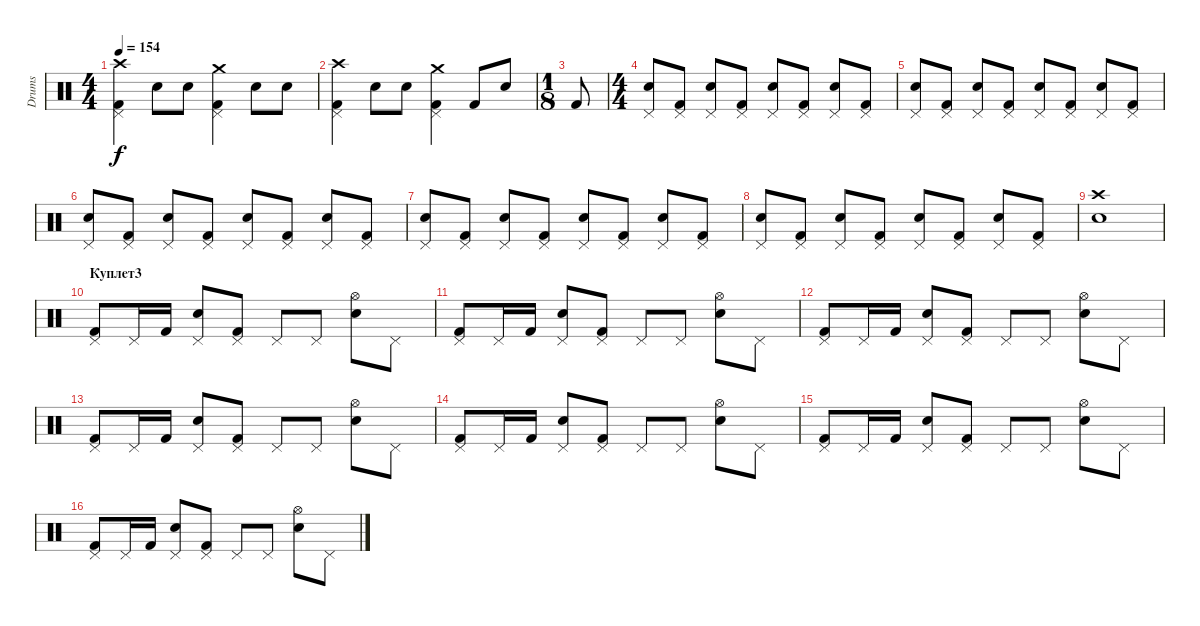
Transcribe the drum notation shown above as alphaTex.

\track ("Drums" "Drums") {instrument percussion}
\staff {score}
\articulation defaults
\ts (4 4)
\tempo 154
\clef neutral
\ks c
("Crash high (hit)" "Kick (hit) 2" "Pedal Hi-Hat (hit)").4{dy f} "Electric Snare (hit)".8 "Electric Snare (hit)".8 ("Crash medium (hit)" "Kick (hit) 2" "Pedal Hi-Hat (hit)").4 "Electric Snare (hit)".8 "Electric Snare (hit)".8 |
("Crash high (hit)" "Kick (hit) 2" "Pedal Hi-Hat (hit)").4 "Electric Snare (hit)".8 "Electric Snare (hit)".8 ("Crash medium (hit)" "Kick (hit) 2" "Pedal Hi-Hat (hit)").4 "Kick (hit) 2".8 "Electric Snare (hit)".8 |
\ts (1 8)
"Kick (hit) 2".8 |
\ts (4 4)
("Electric Snare (hit)" "Pedal Hi-Hat (hit)").8 ("Kick (hit) 2" "Pedal Hi-Hat (hit)").8 ("Electric Snare (hit)" "Pedal Hi-Hat (hit)").8 ("Kick (hit) 2" "Pedal Hi-Hat (hit)").8 ("Electric Snare (hit)" "Pedal Hi-Hat (hit)").8 ("Kick (hit) 2" "Pedal Hi-Hat (hit)").8 ("Electric Snare (hit)" "Pedal Hi-Hat (hit)").8 ("Kick (hit) 2" "Pedal Hi-Hat (hit)").8 |
("Electric Snare (hit)" "Pedal Hi-Hat (hit)").8 ("Kick (hit) 2" "Pedal Hi-Hat (hit)").8 ("Electric Snare (hit)" "Pedal Hi-Hat (hit)").8 ("Kick (hit) 2" "Pedal Hi-Hat (hit)").8 ("Electric Snare (hit)" "Pedal Hi-Hat (hit)").8 ("Kick (hit) 2" "Pedal Hi-Hat (hit)").8 ("Electric Snare (hit)" "Pedal Hi-Hat (hit)").8 ("Kick (hit) 2" "Pedal Hi-Hat (hit)").8 |
("Electric Snare (hit)" "Pedal Hi-Hat (hit)").8 ("Kick (hit) 2" "Pedal Hi-Hat (hit)").8 ("Electric Snare (hit)" "Pedal Hi-Hat (hit)").8 ("Kick (hit) 2" "Pedal Hi-Hat (hit)").8 ("Electric Snare (hit)" "Pedal Hi-Hat (hit)").8 ("Kick (hit) 2" "Pedal Hi-Hat (hit)").8 ("Electric Snare (hit)" "Pedal Hi-Hat (hit)").8 ("Kick (hit) 2" "Pedal Hi-Hat (hit)").8 |
("Electric Snare (hit)" "Pedal Hi-Hat (hit)").8 ("Kick (hit) 2" "Pedal Hi-Hat (hit)").8 ("Electric Snare (hit)" "Pedal Hi-Hat (hit)").8 ("Kick (hit) 2" "Pedal Hi-Hat (hit)").8 ("Electric Snare (hit)" "Pedal Hi-Hat (hit)").8 ("Kick (hit) 2" "Pedal Hi-Hat (hit)").8 ("Electric Snare (hit)" "Pedal Hi-Hat (hit)").8 ("Kick (hit) 2" "Pedal Hi-Hat (hit)").8 |
("Electric Snare (hit)" "Pedal Hi-Hat (hit)").8 ("Kick (hit) 2" "Pedal Hi-Hat (hit)").8 ("Electric Snare (hit)" "Pedal Hi-Hat (hit)").8 ("Kick (hit) 2" "Pedal Hi-Hat (hit)").8 ("Electric Snare (hit)" "Pedal Hi-Hat (hit)").8 ("Kick (hit) 2" "Pedal Hi-Hat (hit)").8 ("Electric Snare (hit)" "Pedal Hi-Hat (hit)").8 ("Kick (hit) 2" "Pedal Hi-Hat (hit)").8 |
("Crash high (hit)" "Electric Snare (hit)").1 |
\section ("" "Куплет3")
("Pedal Hi-Hat (hit)" "Kick (hit) 2").8 "Pedal Hi-Hat (hit)".16 "Kick (hit) 2".16 ("Pedal Hi-Hat (hit)" "Electric Snare (hit)").8 ("Pedal Hi-Hat (hit)" "Kick (hit) 2").8 "Pedal Hi-Hat (hit)".8 "Pedal Hi-Hat (hit)".8 ("Hi-Hat (open)" "Electric Snare (hit)").8 "Pedal Hi-Hat (hit)".8 |
("Pedal Hi-Hat (hit)" "Kick (hit) 2").8 "Pedal Hi-Hat (hit)".16 "Kick (hit) 2".16 ("Pedal Hi-Hat (hit)" "Electric Snare (hit)").8 ("Pedal Hi-Hat (hit)" "Kick (hit) 2").8 "Pedal Hi-Hat (hit)".8 "Pedal Hi-Hat (hit)".8 ("Hi-Hat (open)" "Electric Snare (hit)").8 "Pedal Hi-Hat (hit)".8 |
("Pedal Hi-Hat (hit)" "Kick (hit) 2").8 "Pedal Hi-Hat (hit)".16 "Kick (hit) 2".16 ("Pedal Hi-Hat (hit)" "Electric Snare (hit)").8 ("Pedal Hi-Hat (hit)" "Kick (hit) 2").8 "Pedal Hi-Hat (hit)".8 "Pedal Hi-Hat (hit)".8 ("Hi-Hat (open)" "Electric Snare (hit)").8 "Pedal Hi-Hat (hit)".8 |
("Pedal Hi-Hat (hit)" "Kick (hit) 2").8 "Pedal Hi-Hat (hit)".16 "Kick (hit) 2".16 ("Pedal Hi-Hat (hit)" "Electric Snare (hit)").8 ("Pedal Hi-Hat (hit)" "Kick (hit) 2").8 "Pedal Hi-Hat (hit)".8 "Pedal Hi-Hat (hit)".8 ("Hi-Hat (open)" "Electric Snare (hit)").8 "Pedal Hi-Hat (hit)".8 |
("Pedal Hi-Hat (hit)" "Kick (hit) 2").8 "Pedal Hi-Hat (hit)".16 "Kick (hit) 2".16 ("Pedal Hi-Hat (hit)" "Electric Snare (hit)").8 ("Pedal Hi-Hat (hit)" "Kick (hit) 2").8 "Pedal Hi-Hat (hit)".8 "Pedal Hi-Hat (hit)".8 ("Hi-Hat (open)" "Electric Snare (hit)").8 "Pedal Hi-Hat (hit)".8 |
("Pedal Hi-Hat (hit)" "Kick (hit) 2").8 "Pedal Hi-Hat (hit)".16 "Kick (hit) 2".16 ("Pedal Hi-Hat (hit)" "Electric Snare (hit)").8 ("Pedal Hi-Hat (hit)" "Kick (hit) 2").8 "Pedal Hi-Hat (hit)".8 "Pedal Hi-Hat (hit)".8 ("Hi-Hat (open)" "Electric Snare (hit)").8 "Pedal Hi-Hat (hit)".8 |
("Pedal Hi-Hat (hit)" "Kick (hit) 2").8 "Pedal Hi-Hat (hit)".16 "Kick (hit) 2".16 ("Pedal Hi-Hat (hit)" "Electric Snare (hit)").8 ("Pedal Hi-Hat (hit)" "Kick (hit) 2").8 "Pedal Hi-Hat (hit)".8 "Pedal Hi-Hat (hit)".8 ("Hi-Hat (open)" "Electric Snare (hit)").8 "Pedal Hi-Hat (hit)".8
